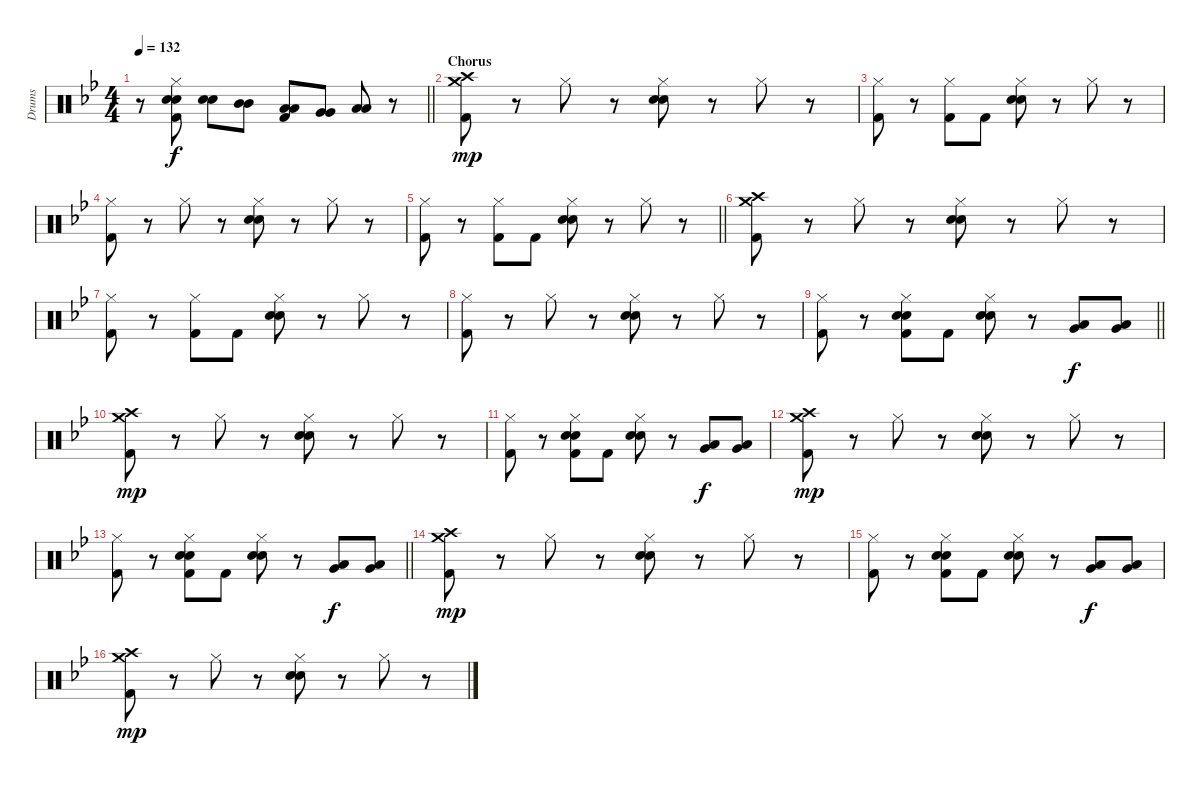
\track ("Drums" "Drums") {instrument percussion}
\staff
\articulation defaults
\ts (4 4)
\tempo 132
\clef neutral
\barLineRight lightlight
\ks bb
r.8{dy f} ("Hi-Hat (closed)" "Electric Snare (hit)" "Electric Snare (hit)" "Kick (hit) 2").8 ("Electric Snare (hit)" "Electric Snare (hit)").8 ("Mid Tom (hit)" "Mid Tom (hit)").8 ("Low Tom (hit)" "Low Tom (hit)" "Kick (hit) 2").8 ("Very Low Tom (hit)" "Very Low Tom (hit)").8 ("Low Floor Tom (hit)" "Low Floor Tom (hit)").8 r.8 |
\section ("" "Chorus")
("Crash high (hit)" "Crash medium (hit)" "Kick (hit) 2").8{dy mp} r.8 "Hi-Hat (closed)".8 r.8 ("Hi-Hat (closed)" "Electric Snare (hit)" "Electric Snare (hit)").8 r.8 "Hi-Hat (closed)".8 r.8 |
("Hi-Hat (closed)" "Kick (hit) 2").8 r.8 ("Hi-Hat (closed)" "Kick (hit) 2").8 "Kick (hit) 2".8 ("Hi-Hat (closed)" "Electric Snare (hit)" "Electric Snare (hit)").8 r.8 "Hi-Hat (closed)".8 r.8 |
("Hi-Hat (closed)" "Kick (hit) 2").8 r.8 "Hi-Hat (closed)".8 r.8 ("Hi-Hat (closed)" "Electric Snare (hit)" "Electric Snare (hit)").8 r.8 "Hi-Hat (closed)".8 r.8 |
\barLineRight lightlight
("Hi-Hat (closed)" "Kick (hit) 2").8 r.8 ("Hi-Hat (closed)" "Kick (hit) 2").8 "Kick (hit) 2".8 ("Hi-Hat (closed)" "Electric Snare (hit)" "Electric Snare (hit)").8 r.8 "Hi-Hat (closed)".8 r.8 |
("Crash high (hit)" "Crash medium (hit)" "Kick (hit) 2").8 r.8 "Hi-Hat (closed)".8 r.8 ("Hi-Hat (closed)" "Electric Snare (hit)" "Electric Snare (hit)").8 r.8 "Hi-Hat (closed)".8 r.8 |
("Hi-Hat (closed)" "Kick (hit) 2").8 r.8 ("Hi-Hat (closed)" "Kick (hit) 2").8 "Kick (hit) 2".8 ("Hi-Hat (closed)" "Electric Snare (hit)" "Electric Snare (hit)").8 r.8 "Hi-Hat (closed)".8 r.8 |
("Hi-Hat (closed)" "Kick (hit) 2").8 r.8 "Hi-Hat (closed)".8 r.8 ("Hi-Hat (closed)" "Electric Snare (hit)" "Electric Snare (hit)").8 r.8 "Hi-Hat (closed)".8 r.8 |
\barLineRight lightlight
("Hi-Hat (closed)" "Kick (hit) 2").8 r.8 ("Hi-Hat (closed)" "Electric Snare (hit)" "Electric Snare (hit)" "Kick (hit) 2").8 "Kick (hit) 2".8 ("Hi-Hat (closed)" "Electric Snare (hit)" "Electric Snare (hit)").8 r.8 ("Low Floor Tom (hit)" "Very Low Tom (hit)").8{dy f} ("Low Floor Tom (hit)" "Very Low Tom (hit)").8 |
("Crash high (hit)" "Crash medium (hit)" "Kick (hit) 2").8{dy mp} r.8 "Hi-Hat (closed)".8 r.8 ("Hi-Hat (closed)" "Electric Snare (hit)" "Electric Snare (hit)").8 r.8 "Hi-Hat (closed)".8 r.8 |
("Hi-Hat (closed)" "Kick (hit) 2").8 r.8 ("Hi-Hat (closed)" "Electric Snare (hit)" "Electric Snare (hit)" "Kick (hit) 2").8 "Kick (hit) 2".8 ("Hi-Hat (closed)" "Electric Snare (hit)" "Electric Snare (hit)").8 r.8 ("Low Floor Tom (hit)" "Very Low Tom (hit)").8{dy f} ("Low Floor Tom (hit)" "Very Low Tom (hit)").8 |
("Crash high (hit)" "Crash medium (hit)" "Kick (hit) 2").8{dy mp} r.8 "Hi-Hat (closed)".8 r.8 ("Hi-Hat (closed)" "Electric Snare (hit)" "Electric Snare (hit)").8 r.8 "Hi-Hat (closed)".8 r.8 |
\barLineRight lightlight
("Hi-Hat (closed)" "Kick (hit) 2").8 r.8 ("Hi-Hat (closed)" "Electric Snare (hit)" "Electric Snare (hit)" "Kick (hit) 2").8 "Kick (hit) 2".8 ("Hi-Hat (closed)" "Electric Snare (hit)" "Electric Snare (hit)").8 r.8 ("Low Floor Tom (hit)" "Very Low Tom (hit)").8{dy f} ("Low Floor Tom (hit)" "Very Low Tom (hit)").8 |
("Crash high (hit)" "Crash medium (hit)" "Kick (hit) 2").8{dy mp} r.8 "Hi-Hat (closed)".8 r.8 ("Hi-Hat (closed)" "Electric Snare (hit)" "Electric Snare (hit)").8 r.8 "Hi-Hat (closed)".8 r.8 |
("Hi-Hat (closed)" "Kick (hit) 2").8 r.8 ("Hi-Hat (closed)" "Electric Snare (hit)" "Electric Snare (hit)" "Kick (hit) 2").8 "Kick (hit) 2".8 ("Hi-Hat (closed)" "Electric Snare (hit)" "Electric Snare (hit)").8 r.8 ("Low Floor Tom (hit)" "Very Low Tom (hit)").8{dy f} ("Low Floor Tom (hit)" "Very Low Tom (hit)").8 |
("Crash high (hit)" "Crash medium (hit)" "Kick (hit) 2").8{dy mp} r.8 "Hi-Hat (closed)".8 r.8 ("Hi-Hat (closed)" "Electric Snare (hit)" "Electric Snare (hit)").8 r.8 "Hi-Hat (closed)".8 r.8
